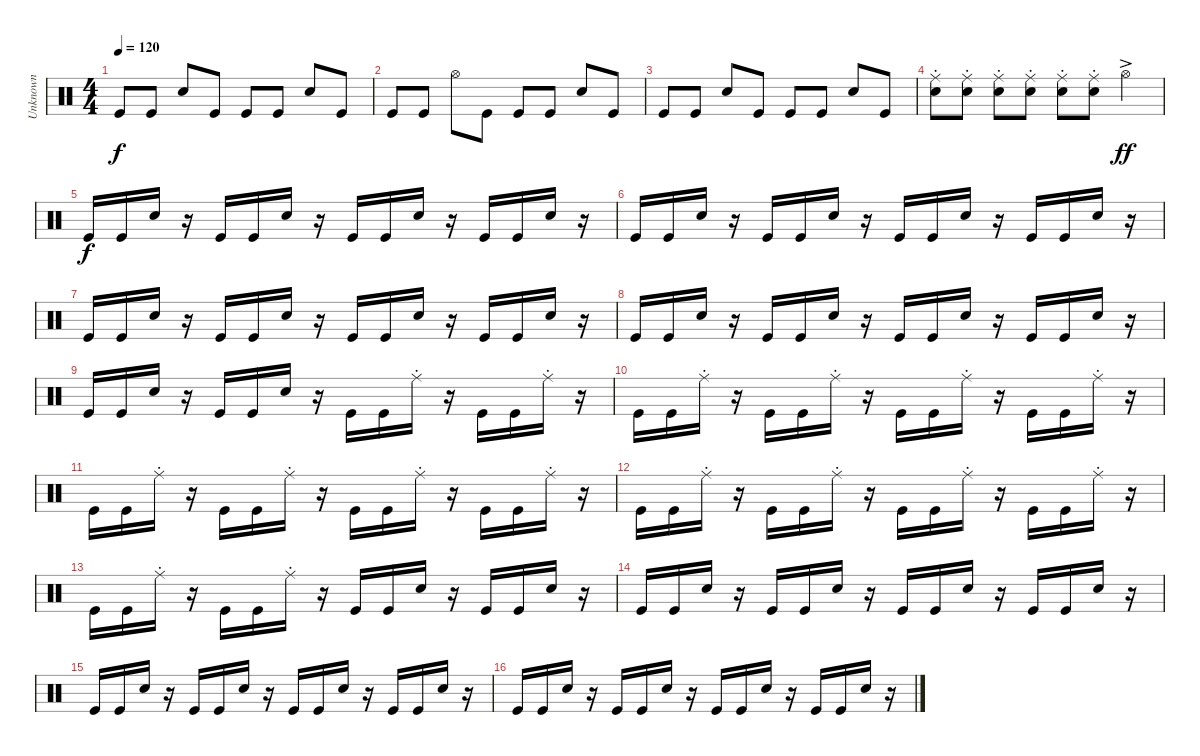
\track ("Unknown" "Unknown") {instrument percussion}
\staff {score}
\articulation defaults
\ts (4 4)
\tempo 120
\clef neutral
\ks c "Kick (hit)".8{dy f} "Kick (hit)".8 "Snare (hit) 2".8 "Kick (hit)".8 "Kick (hit)".8 "Kick (hit)".8 "Snare (hit) 2".8 "Kick (hit)".8
|
"Kick (hit)".8 "Kick (hit)".8 "Hi-Hat (open)".8 "Kick (hit)".8 "Kick (hit)".8 "Kick (hit)".8 "Snare (hit) 2".8 "Kick (hit)".8 |
"Kick (hit)".8 "Kick (hit)".8 "Snare (hit) 2".8 "Kick (hit)".8 "Kick (hit)".8 "Kick (hit)".8 "Snare (hit) 2".8 "Kick (hit)".8 |
("Ride (middle)"{st} "Snare (hit) 2"{st}).8 ("Ride (middle)"{st} "Snare (hit) 2"{st}).8 ("Ride (middle)"{st} "Snare (hit) 2"{st}).8 ("Ride (middle)"{st} "Snare (hit) 2"{st}).8 ("Ride (middle)"{st} "Snare (hit) 2"{st}).8 ("Ride (middle)"{st} "Snare (hit) 2"{st}).8 "Hi-Hat (open)"{ac}.4{dy ff} |
"Kick (hit)".16{dy f} "Kick (hit)".16 "Snare (hit) 2".16 r.16 "Kick (hit)".16 "Kick (hit)".16 "Snare (hit) 2".16 r.16 "Kick (hit)".16 "Kick (hit)".16 "Snare (hit) 2".16 r.16 "Kick (hit)".16 "Kick (hit)".16 "Snare (hit) 2".16 r.16 |
"Kick (hit)".16 "Kick (hit)".16 "Snare (hit) 2".16 r.16 "Kick (hit)".16 "Kick (hit)".16 "Snare (hit) 2".16 r.16 "Kick (hit)".16 "Kick (hit)".16 "Snare (hit) 2".16 r.16 "Kick (hit)".16 "Kick (hit)".16 "Snare (hit) 2".16 r.16 |
"Kick (hit)".16 "Kick (hit)".16 "Snare (hit) 2".16 r.16 "Kick (hit)".16 "Kick (hit)".16 "Snare (hit) 2".16 r.16 "Kick (hit)".16 "Kick (hit)".16 "Snare (hit) 2".16 r.16 "Kick (hit)".16 "Kick (hit)".16 "Snare (hit) 2".16 r.16 |
"Kick (hit)".16 "Kick (hit)".16 "Snare (hit) 2".16 r.16 "Kick (hit)".16 "Kick (hit)".16 "Snare (hit) 2".16 r.16 "Kick (hit)".16 "Kick (hit)".16 "Snare (hit) 2".16 r.16 "Kick (hit)".16 "Kick (hit)".16 "Snare (hit) 2".16 r.16 |
"Kick (hit)".16 "Kick (hit)".16 "Snare (hit) 2".16 r.16 "Kick (hit)".16 "Kick (hit)".16 "Snare (hit) 2".16 r.16 "Kick (hit)".16 "Kick (hit)".16 "Ride (middle)"{st}.16 r.16 "Kick (hit)".16 "Kick (hit)".16 "Ride (middle)"{st}.16 r.16 |
"Kick (hit)".16 "Kick (hit)".16 "Ride (middle)"{st}.16 r.16 "Kick (hit)".16 "Kick (hit)".16 "Ride (middle)"{st}.16 r.16 "Kick (hit)".16 "Kick (hit)".16 "Ride (middle)"{st}.16 r.16 "Kick (hit)".16 "Kick (hit)".16 "Ride (middle)"{st}.16 r.16 |
"Kick (hit)".16 "Kick (hit)".16 "Ride (middle)"{st}.16 r.16 "Kick (hit)".16 "Kick (hit)".16 "Ride (middle)"{st}.16 r.16 "Kick (hit)".16 "Kick (hit)".16 "Ride (middle)"{st}.16 r.16 "Kick (hit)".16 "Kick (hit)".16 "Ride (middle)"{st}.16 r.16 |
"Kick (hit)".16 "Kick (hit)".16 "Ride (middle)"{st}.16 r.16 "Kick (hit)".16 "Kick (hit)".16 "Ride (middle)"{st}.16 r.16 "Kick (hit)".16 "Kick (hit)".16 "Ride (middle)"{st}.16 r.16 "Kick (hit)".16 "Kick (hit)".16 "Ride (middle)"{st}.16 r.16 |
"Kick (hit)".16 "Kick (hit)".16 "Ride (middle)"{st}.16 r.16 "Kick (hit)".16 "Kick (hit)".16 "Ride (middle)"{st}.16 r.16 "Kick (hit)".16 "Kick (hit)".16 "Snare (hit) 2".16 r.16 "Kick (hit)".16 "Kick (hit)".16 "Snare (hit) 2".16 r.16 |
"Kick (hit)".16 "Kick (hit)".16 "Snare (hit) 2".16 r.16 "Kick (hit)".16 "Kick (hit)".16 "Snare (hit) 2".16 r.16 "Kick (hit)".16 "Kick (hit)".16 "Snare (hit) 2".16 r.16 "Kick (hit)".16 "Kick (hit)".16 "Snare (hit) 2".16 r.16 |
"Kick (hit)".16 "Kick (hit)".16 "Snare (hit) 2".16 r.16 "Kick (hit)".16 "Kick (hit)".16 "Snare (hit) 2".16 r.16 "Kick (hit)".16 "Kick (hit)".16 "Snare (hit) 2".16 r.16 "Kick (hit)".16 "Kick (hit)".16 "Snare (hit) 2".16 r.16 |
"Kick (hit)".16 "Kick (hit)".16 "Snare (hit) 2".16 r.16 "Kick (hit)".16 "Kick (hit)".16 "Snare (hit) 2".16 r.16 "Kick (hit)".16 "Kick (hit)".16 "Snare (hit) 2".16 r.16 "Kick (hit)".16 "Kick (hit)".16 "Snare (hit) 2".16 r.16
